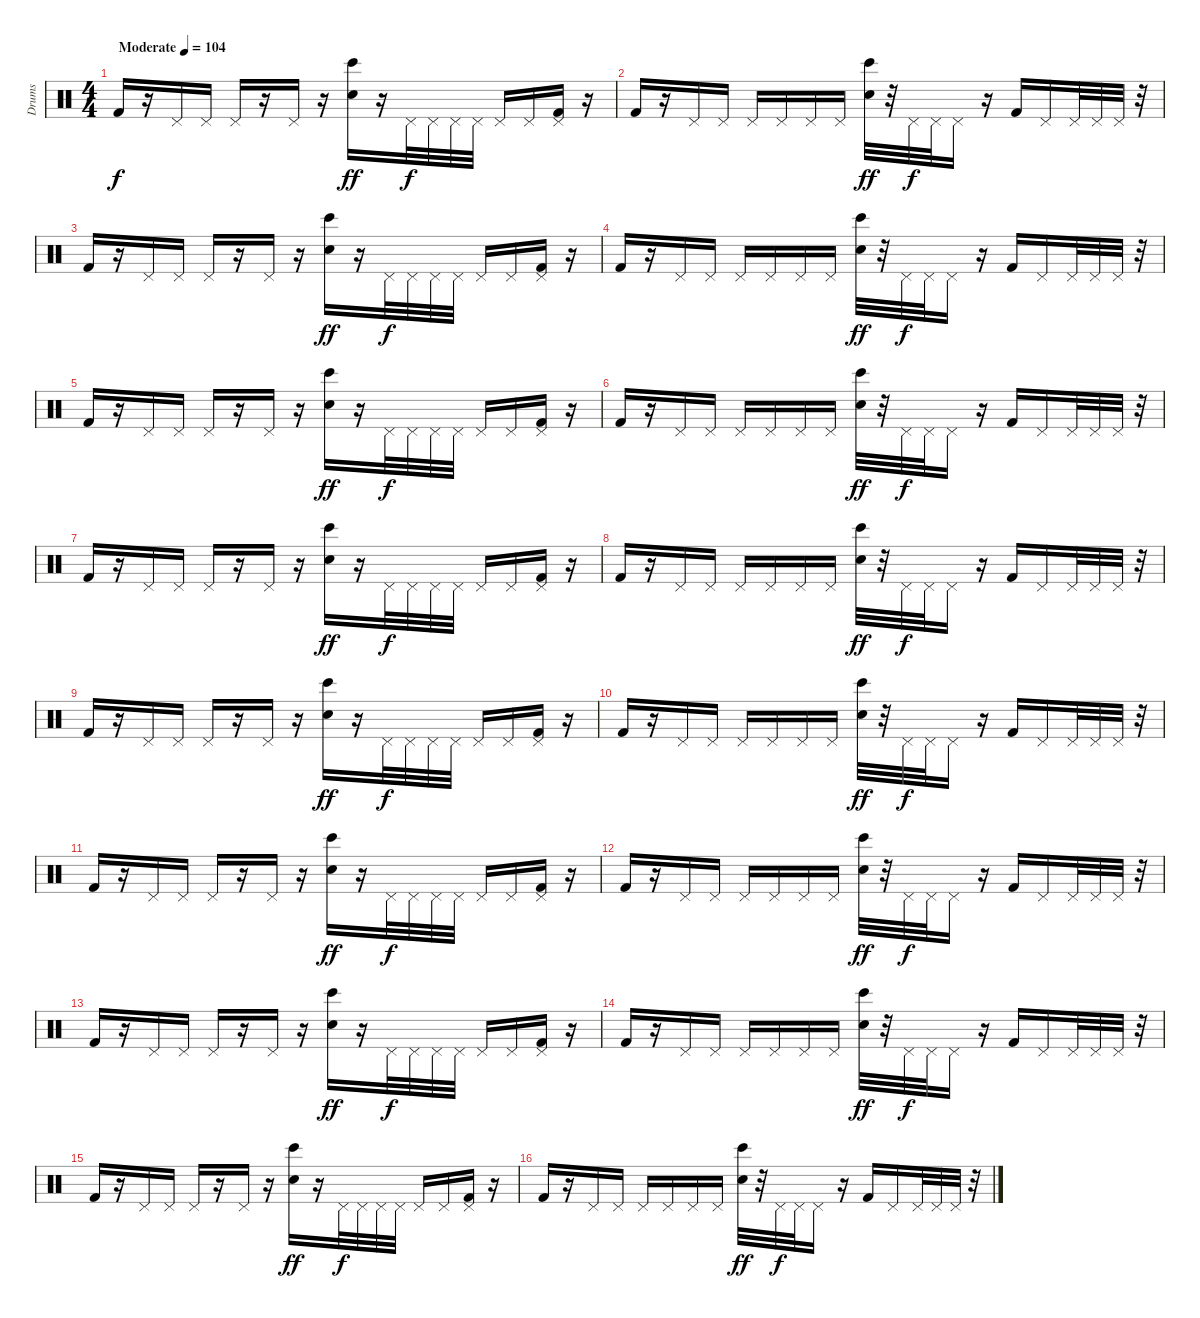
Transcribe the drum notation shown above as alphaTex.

\track ("Drums" "Drums") {instrument percussion}
\staff {score}
\articulation defaults
\ts (4 4)
\tempo (104 "Moderate")
\clef neutral
\ks c "Kick (hit) 2".16{dy f}
r.16 "Pedal Hi-Hat (hit)".16 "Pedal Hi-Hat (hit)".16 "Pedal Hi-Hat (hit)".16 r.16 "Pedal Hi-Hat (hit)".16 r.16 ("Electric Snare (hit)" "Bongo High (hit)").16{dy ff} r.16 "Pedal Hi-Hat (hit)".32{dy f} "Pedal Hi-Hat (hit)".32 "Pedal Hi-Hat (hit)".32 "Pedal Hi-Hat (hit)".32 "Pedal Hi-Hat (hit)".16 "Pedal Hi-Hat (hit)".16 ("Pedal Hi-Hat (hit)" "Kick (hit) 2").16 r.16 |
"Kick (hit) 2".16 r.16 "Pedal Hi-Hat (hit)".16 "Pedal Hi-Hat (hit)".16 "Pedal Hi-Hat (hit)".16 "Pedal Hi-Hat (hit)".16 "Pedal Hi-Hat (hit)".16 "Pedal Hi-Hat (hit)".16 ("Electric Snare (hit)" "Bongo High (hit)").32{dy ff} r.32 "Pedal Hi-Hat (hit)".32{dy f} "Pedal Hi-Hat (hit)".32 "Pedal Hi-Hat (hit)".16 r.16 "Kick (hit) 2".16 "Pedal Hi-Hat (hit)".16 "Pedal Hi-Hat (hit)".32 "Pedal Hi-Hat (hit)".32 "Pedal Hi-Hat (hit)".32 r.32 |
"Kick (hit) 2".16 r.16 "Pedal Hi-Hat (hit)".16 "Pedal Hi-Hat (hit)".16 "Pedal Hi-Hat (hit)".16 r.16 "Pedal Hi-Hat (hit)".16 r.16 ("Electric Snare (hit)" "Bongo High (hit)").16{dy ff} r.16 "Pedal Hi-Hat (hit)".32{dy f} "Pedal Hi-Hat (hit)".32 "Pedal Hi-Hat (hit)".32 "Pedal Hi-Hat (hit)".32 "Pedal Hi-Hat (hit)".16 "Pedal Hi-Hat (hit)".16 ("Pedal Hi-Hat (hit)" "Kick (hit) 2").16 r.16 |
"Kick (hit) 2".16 r.16 "Pedal Hi-Hat (hit)".16 "Pedal Hi-Hat (hit)".16 "Pedal Hi-Hat (hit)".16 "Pedal Hi-Hat (hit)".16 "Pedal Hi-Hat (hit)".16 "Pedal Hi-Hat (hit)".16 ("Electric Snare (hit)" "Bongo High (hit)").32{dy ff} r.32 "Pedal Hi-Hat (hit)".32{dy f} "Pedal Hi-Hat (hit)".32 "Pedal Hi-Hat (hit)".16 r.16 "Kick (hit) 2".16 "Pedal Hi-Hat (hit)".16 "Pedal Hi-Hat (hit)".32 "Pedal Hi-Hat (hit)".32 "Pedal Hi-Hat (hit)".32 r.32 |
"Kick (hit) 2".16 r.16 "Pedal Hi-Hat (hit)".16 "Pedal Hi-Hat (hit)".16 "Pedal Hi-Hat (hit)".16 r.16 "Pedal Hi-Hat (hit)".16 r.16 ("Electric Snare (hit)" "Bongo High (hit)").16{dy ff} r.16 "Pedal Hi-Hat (hit)".32{dy f} "Pedal Hi-Hat (hit)".32 "Pedal Hi-Hat (hit)".32 "Pedal Hi-Hat (hit)".32 "Pedal Hi-Hat (hit)".16 "Pedal Hi-Hat (hit)".16 ("Pedal Hi-Hat (hit)" "Kick (hit) 2").16 r.16 |
"Kick (hit) 2".16 r.16 "Pedal Hi-Hat (hit)".16 "Pedal Hi-Hat (hit)".16 "Pedal Hi-Hat (hit)".16 "Pedal Hi-Hat (hit)".16 "Pedal Hi-Hat (hit)".16 "Pedal Hi-Hat (hit)".16 ("Electric Snare (hit)" "Bongo High (hit)").32{dy ff} r.32 "Pedal Hi-Hat (hit)".32{dy f} "Pedal Hi-Hat (hit)".32 "Pedal Hi-Hat (hit)".16 r.16 "Kick (hit) 2".16 "Pedal Hi-Hat (hit)".16 "Pedal Hi-Hat (hit)".32 "Pedal Hi-Hat (hit)".32 "Pedal Hi-Hat (hit)".32 r.32 |
"Kick (hit) 2".16 r.16 "Pedal Hi-Hat (hit)".16 "Pedal Hi-Hat (hit)".16 "Pedal Hi-Hat (hit)".16 r.16 "Pedal Hi-Hat (hit)".16 r.16 ("Electric Snare (hit)" "Bongo High (hit)").16{dy ff} r.16 "Pedal Hi-Hat (hit)".32{dy f} "Pedal Hi-Hat (hit)".32 "Pedal Hi-Hat (hit)".32 "Pedal Hi-Hat (hit)".32 "Pedal Hi-Hat (hit)".16 "Pedal Hi-Hat (hit)".16 ("Pedal Hi-Hat (hit)" "Kick (hit) 2").16 r.16 |
"Kick (hit) 2".16 r.16 "Pedal Hi-Hat (hit)".16 "Pedal Hi-Hat (hit)".16 "Pedal Hi-Hat (hit)".16 "Pedal Hi-Hat (hit)".16 "Pedal Hi-Hat (hit)".16 "Pedal Hi-Hat (hit)".16 ("Electric Snare (hit)" "Bongo High (hit)").32{dy ff} r.32 "Pedal Hi-Hat (hit)".32{dy f} "Pedal Hi-Hat (hit)".32 "Pedal Hi-Hat (hit)".16 r.16 "Kick (hit) 2".16 "Pedal Hi-Hat (hit)".16 "Pedal Hi-Hat (hit)".32 "Pedal Hi-Hat (hit)".32 "Pedal Hi-Hat (hit)".32 r.32 |
"Kick (hit) 2".16 r.16 "Pedal Hi-Hat (hit)".16 "Pedal Hi-Hat (hit)".16 "Pedal Hi-Hat (hit)".16 r.16 "Pedal Hi-Hat (hit)".16 r.16 ("Electric Snare (hit)" "Bongo High (hit)").16{dy ff} r.16 "Pedal Hi-Hat (hit)".32{dy f} "Pedal Hi-Hat (hit)".32 "Pedal Hi-Hat (hit)".32 "Pedal Hi-Hat (hit)".32 "Pedal Hi-Hat (hit)".16 "Pedal Hi-Hat (hit)".16 ("Pedal Hi-Hat (hit)" "Kick (hit) 2").16 r.16 |
"Kick (hit) 2".16 r.16 "Pedal Hi-Hat (hit)".16 "Pedal Hi-Hat (hit)".16 "Pedal Hi-Hat (hit)".16 "Pedal Hi-Hat (hit)".16 "Pedal Hi-Hat (hit)".16 "Pedal Hi-Hat (hit)".16 ("Electric Snare (hit)" "Bongo High (hit)").32{dy ff} r.32 "Pedal Hi-Hat (hit)".32{dy f} "Pedal Hi-Hat (hit)".32 "Pedal Hi-Hat (hit)".16 r.16 "Kick (hit) 2".16 "Pedal Hi-Hat (hit)".16 "Pedal Hi-Hat (hit)".32 "Pedal Hi-Hat (hit)".32 "Pedal Hi-Hat (hit)".32 r.32 |
"Kick (hit) 2".16 r.16 "Pedal Hi-Hat (hit)".16 "Pedal Hi-Hat (hit)".16 "Pedal Hi-Hat (hit)".16 r.16 "Pedal Hi-Hat (hit)".16 r.16 ("Electric Snare (hit)" "Bongo High (hit)").16{dy ff} r.16 "Pedal Hi-Hat (hit)".32{dy f} "Pedal Hi-Hat (hit)".32 "Pedal Hi-Hat (hit)".32 "Pedal Hi-Hat (hit)".32 "Pedal Hi-Hat (hit)".16 "Pedal Hi-Hat (hit)".16 ("Pedal Hi-Hat (hit)" "Kick (hit) 2").16 r.16 |
"Kick (hit) 2".16 r.16 "Pedal Hi-Hat (hit)".16 "Pedal Hi-Hat (hit)".16 "Pedal Hi-Hat (hit)".16 "Pedal Hi-Hat (hit)".16 "Pedal Hi-Hat (hit)".16 "Pedal Hi-Hat (hit)".16 ("Electric Snare (hit)" "Bongo High (hit)").32{dy ff} r.32 "Pedal Hi-Hat (hit)".32{dy f} "Pedal Hi-Hat (hit)".32 "Pedal Hi-Hat (hit)".16 r.16 "Kick (hit) 2".16 "Pedal Hi-Hat (hit)".16 "Pedal Hi-Hat (hit)".32 "Pedal Hi-Hat (hit)".32 "Pedal Hi-Hat (hit)".32 r.32 |
"Kick (hit) 2".16 r.16 "Pedal Hi-Hat (hit)".16 "Pedal Hi-Hat (hit)".16 "Pedal Hi-Hat (hit)".16 r.16 "Pedal Hi-Hat (hit)".16 r.16 ("Electric Snare (hit)" "Bongo High (hit)").16{dy ff} r.16 "Pedal Hi-Hat (hit)".32{dy f} "Pedal Hi-Hat (hit)".32 "Pedal Hi-Hat (hit)".32 "Pedal Hi-Hat (hit)".32 "Pedal Hi-Hat (hit)".16 "Pedal Hi-Hat (hit)".16 ("Pedal Hi-Hat (hit)" "Kick (hit) 2").16 r.16 |
"Kick (hit) 2".16 r.16 "Pedal Hi-Hat (hit)".16 "Pedal Hi-Hat (hit)".16 "Pedal Hi-Hat (hit)".16 "Pedal Hi-Hat (hit)".16 "Pedal Hi-Hat (hit)".16 "Pedal Hi-Hat (hit)".16 ("Electric Snare (hit)" "Bongo High (hit)").32{dy ff} r.32 "Pedal Hi-Hat (hit)".32{dy f} "Pedal Hi-Hat (hit)".32 "Pedal Hi-Hat (hit)".16 r.16 "Kick (hit) 2".16 "Pedal Hi-Hat (hit)".16 "Pedal Hi-Hat (hit)".32 "Pedal Hi-Hat (hit)".32 "Pedal Hi-Hat (hit)".32 r.32 |
"Kick (hit) 2".16 r.16 "Pedal Hi-Hat (hit)".16 "Pedal Hi-Hat (hit)".16 "Pedal Hi-Hat (hit)".16 r.16 "Pedal Hi-Hat (hit)".16 r.16 ("Electric Snare (hit)" "Bongo High (hit)").16{dy ff} r.16 "Pedal Hi-Hat (hit)".32{dy f} "Pedal Hi-Hat (hit)".32 "Pedal Hi-Hat (hit)".32 "Pedal Hi-Hat (hit)".32 "Pedal Hi-Hat (hit)".16 "Pedal Hi-Hat (hit)".16 ("Pedal Hi-Hat (hit)" "Kick (hit) 2").16 r.16 |
"Kick (hit) 2".16 r.16 "Pedal Hi-Hat (hit)".16 "Pedal Hi-Hat (hit)".16 "Pedal Hi-Hat (hit)".16 "Pedal Hi-Hat (hit)".16 "Pedal Hi-Hat (hit)".16 "Pedal Hi-Hat (hit)".16 ("Electric Snare (hit)" "Bongo High (hit)").32{dy ff} r.32 "Pedal Hi-Hat (hit)".32{dy f} "Pedal Hi-Hat (hit)".32 "Pedal Hi-Hat (hit)".16 r.16 "Kick (hit) 2".16 "Pedal Hi-Hat (hit)".16 "Pedal Hi-Hat (hit)".32 "Pedal Hi-Hat (hit)".32 "Pedal Hi-Hat (hit)".32 r.32
